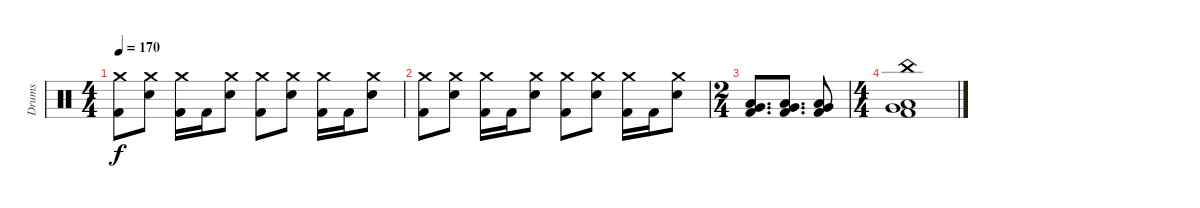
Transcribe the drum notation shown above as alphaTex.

\track ("Drums" "Drums") {instrument percussion}
\staff {score}
\articulation defaults
\ts (4 4)
\tempo 170
\clef neutral
\ks c
("Crash medium (hit)" "Kick (hit) 2").8{dy f} ("Crash medium (hit)" "Electric Snare (hit)").8 ("Crash medium (hit)" "Kick (hit) 2").16 "Kick (hit) 2".16 ("Crash medium (hit)" "Electric Snare (hit)").8 ("Crash medium (hit)" "Kick (hit) 2").8 ("Crash medium (hit)" "Electric Snare (hit)").8 ("Crash medium (hit)" "Kick (hit) 2").16 "Kick (hit) 2".16 ("Crash medium (hit)" "Electric Snare (hit)").8 |
("Crash medium (hit)" "Kick (hit) 2").8 ("Crash medium (hit)" "Electric Snare (hit)").8 ("Crash medium (hit)" "Kick (hit) 2").16 "Kick (hit) 2".16 ("Crash medium (hit)" "Electric Snare (hit)").8 ("Crash medium (hit)" "Kick (hit) 2").8 ("Crash medium (hit)" "Electric Snare (hit)").8 ("Crash medium (hit)" "Kick (hit) 2").16 "Kick (hit) 2".16 ("Crash medium (hit)" "Electric Snare (hit)").8 |
\ts (2 4)
("Very Low Tom (hit)" "Low Floor Tom (hit)" "Kick (hit) 2").8{d} ("Very Low Tom (hit)" "Low Floor Tom (hit)" "Kick (hit) 2").8{d} ("Very Low Tom (hit)" "Low Floor Tom (hit)" "Kick (hit) 2").8 |
\ts (4 4)
("China (hit)" "Very Low Tom (hit)" "Low Floor Tom (hit)" "Kick (hit) 2").1
